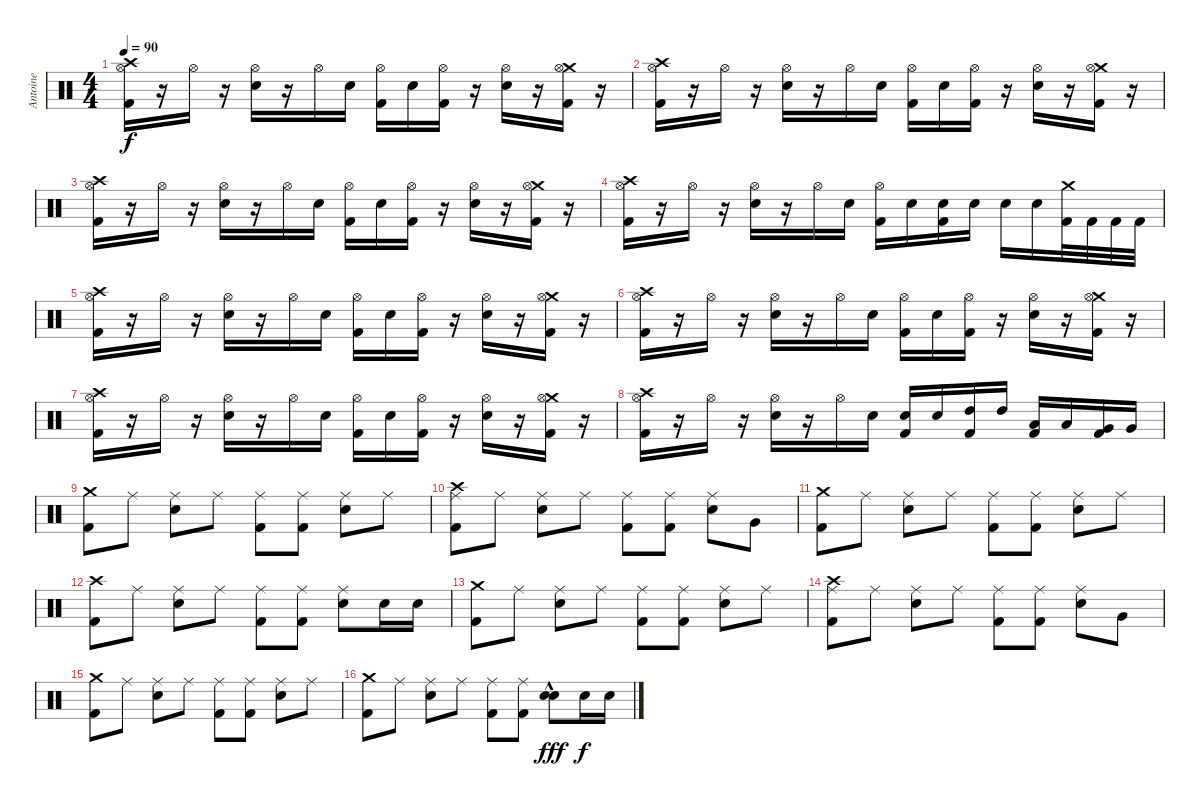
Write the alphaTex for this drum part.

\track ("Antoine" "Antoine") {instrument percussion}
\staff {score}
\articulation defaults
\ts (4 4)
\tempo 90
\clef neutral
\ks c
("Crash high (hit)" "Hi-Hat (open)" "Kick (hit) 2").16{dy f} r.16 "Hi-Hat (open)".16 r.16 ("Hi-Hat (open)" "Electric Snare (hit)").16 r.16 "Hi-Hat (open)".16 "Electric Snare (hit)".16 ("Hi-Hat (open)" "Kick (hit) 2").16 "Electric Snare (hit)".16 ("Hi-Hat (open)" "Kick (hit) 2").16 r.16 ("Hi-Hat (open)" "Electric Snare (hit)").16 r.16 ("Crash medium (hit)" "Hi-Hat (open)" "Kick (hit) 2").16 r.16 |
("Crash high (hit)" "Hi-Hat (open)" "Kick (hit) 2").16 r.16 "Hi-Hat (open)".16 r.16 ("Hi-Hat (open)" "Electric Snare (hit)").16 r.16 "Hi-Hat (open)".16 "Electric Snare (hit)".16 ("Hi-Hat (open)" "Kick (hit) 2").16 "Electric Snare (hit)".16 ("Hi-Hat (open)" "Kick (hit) 2").16 r.16 ("Hi-Hat (open)" "Electric Snare (hit)").16 r.16 ("Crash medium (hit)" "Hi-Hat (open)" "Kick (hit) 2").16 r.16 |
("Crash high (hit)" "Hi-Hat (open)" "Kick (hit) 2").16 r.16 "Hi-Hat (open)".16 r.16 ("Hi-Hat (open)" "Electric Snare (hit)").16 r.16 "Hi-Hat (open)".16 "Electric Snare (hit)".16 ("Hi-Hat (open)" "Kick (hit) 2").16 "Electric Snare (hit)".16 ("Hi-Hat (open)" "Kick (hit) 2").16 r.16 ("Hi-Hat (open)" "Electric Snare (hit)").16 r.16 ("Crash medium (hit)" "Hi-Hat (open)" "Kick (hit) 2").16 r.16 |
("Crash high (hit)" "Hi-Hat (open)" "Kick (hit) 2").16 r.16 "Hi-Hat (open)".16 r.16 ("Hi-Hat (open)" "Electric Snare (hit)").16 r.16 "Hi-Hat (open)".16 "Electric Snare (hit)".16 ("Hi-Hat (open)" "Kick (hit) 2").16 "Electric Snare (hit)".16 ("Electric Snare (hit)" "Kick (hit) 2").16 "Electric Snare (hit)".16 "Electric Snare (hit)".16 "Electric Snare (hit)".16 ("Crash medium (hit)" "Kick (hit) 2").32 "Kick (hit) 2".32 "Kick (hit) 2".32 "Kick (hit) 2".32 |
("Crash high (hit)" "Hi-Hat (open)" "Kick (hit) 2").16 r.16 "Hi-Hat (open)".16 r.16 ("Hi-Hat (open)" "Electric Snare (hit)").16 r.16 "Hi-Hat (open)".16 "Electric Snare (hit)".16 ("Hi-Hat (open)" "Kick (hit) 2").16 "Electric Snare (hit)".16 ("Hi-Hat (open)" "Kick (hit) 2").16 r.16 ("Hi-Hat (open)" "Electric Snare (hit)").16 r.16 ("Crash medium (hit)" "Hi-Hat (open)" "Kick (hit) 2").16 r.16 |
("Crash high (hit)" "Hi-Hat (open)" "Kick (hit) 2").16 r.16 "Hi-Hat (open)".16 r.16 ("Hi-Hat (open)" "Electric Snare (hit)").16 r.16 "Hi-Hat (open)".16 "Electric Snare (hit)".16 ("Hi-Hat (open)" "Kick (hit) 2").16 "Electric Snare (hit)".16 ("Hi-Hat (open)" "Kick (hit) 2").16 r.16 ("Hi-Hat (open)" "Electric Snare (hit)").16 r.16 ("Crash medium (hit)" "Hi-Hat (open)" "Kick (hit) 2").16 r.16 |
("Crash high (hit)" "Hi-Hat (open)" "Kick (hit) 2").16 r.16 "Hi-Hat (open)".16 r.16 ("Hi-Hat (open)" "Electric Snare (hit)").16 r.16 "Hi-Hat (open)".16 "Electric Snare (hit)".16 ("Hi-Hat (open)" "Kick (hit) 2").16 "Electric Snare (hit)".16 ("Hi-Hat (open)" "Kick (hit) 2").16 r.16 ("Hi-Hat (open)" "Electric Snare (hit)").16 r.16 ("Crash medium (hit)" "Hi-Hat (open)" "Kick (hit) 2").16 r.16 |
("Crash high (hit)" "Hi-Hat (open)" "Kick (hit) 2").16 r.16 "Hi-Hat (open)".16 r.16 ("Hi-Hat (open)" "Electric Snare (hit)").16 r.16 "Hi-Hat (open)".16 "Electric Snare (hit)".16 ("Electric Snare (hit)" "Kick (hit) 2").16 "Electric Snare (hit)".16 ("High Tom (hit)" "Kick (hit) 2").16 "High Tom (hit)".16 ("Low Tom (hit)" "Kick (hit) 2").16 "Low Tom (hit)".16 ("Very Low Tom (hit)" "Kick (hit) 2").16 "Very Low Tom (hit)".16 |
("Crash medium (hit)" "Kick (hit) 2").8 "Ride (middle)".8 ("Ride (middle)" "Electric Snare (hit)").8 "Ride (middle)".8 ("Ride (middle)" "Kick (hit) 2").8 ("Ride (middle)" "Kick (hit) 2").8 ("Ride (middle)" "Electric Snare (hit)").8 "Ride (middle)".8 |
("Crash high (hit)" "Ride (middle)" "Kick (hit) 2").8 "Ride (middle)".8 ("Ride (middle)" "Electric Snare (hit)").8 "Ride (middle)".8 ("Ride (middle)" "Kick (hit) 2").8 ("Ride (middle)" "Kick (hit) 2").8 ("Ride (middle)" "Electric Snare (hit)").8 "Very Low Tom (hit)".8 |
("Crash medium (hit)" "Kick (hit) 2").8 "Ride (middle)".8 ("Ride (middle)" "Electric Snare (hit)").8 "Ride (middle)".8 ("Ride (middle)" "Kick (hit) 2").8 ("Ride (middle)" "Kick (hit) 2").8 ("Ride (middle)" "Electric Snare (hit)").8 "Ride (middle)".8 |
("Crash high (hit)" "Kick (hit) 2").8 "Ride (middle)".8 ("Ride (middle)" "Electric Snare (hit)").8 "Ride (middle)".8 ("Ride (middle)" "Kick (hit) 2").8 ("Ride (middle)" "Kick (hit) 2").8 ("Ride (middle)" "Electric Snare (hit)").8 "Electric Snare (hit)".16 "Electric Snare (hit)".16 |
("Crash medium (hit)" "Kick (hit) 2").8 "Ride (middle)".8 ("Ride (middle)" "Electric Snare (hit)").8 "Ride (middle)".8 ("Ride (middle)" "Kick (hit) 2").8 ("Ride (middle)" "Kick (hit) 2").8 ("Ride (middle)" "Electric Snare (hit)").8 "Ride (middle)".8 |
("Crash high (hit)" "Ride (middle)" "Kick (hit) 2").8 "Ride (middle)".8 ("Ride (middle)" "Electric Snare (hit)").8 "Ride (middle)".8 ("Ride (middle)" "Kick (hit) 2").8 ("Ride (middle)" "Kick (hit) 2").8 ("Ride (middle)" "Electric Snare (hit)").8 "Very Low Tom (hit)".8 |
("Crash medium (hit)" "Kick (hit) 2").8 "Ride (middle)".8 ("Ride (middle)" "Electric Snare (hit)").8 "Ride (middle)".8 ("Ride (middle)" "Kick (hit) 2").8 ("Ride (middle)" "Kick (hit) 2").8 ("Ride (middle)" "Electric Snare (hit)").8 "Ride (middle)".8 |
("Crash medium (hit)" "Kick (hit) 2").8 "Ride (middle)".8 ("Ride (middle)" "Electric Snare (hit)").8 "Ride (middle)".8 ("Ride (middle)" "Kick (hit) 2").8 ("Ride (middle)" "Kick (hit) 2").8 ("Electric Snare (hit)"{hac} "Electric Snare (hit)"{hac}).8{dy fff} "Electric Snare (hit)".16{dy f} "Electric Snare (hit)".16
